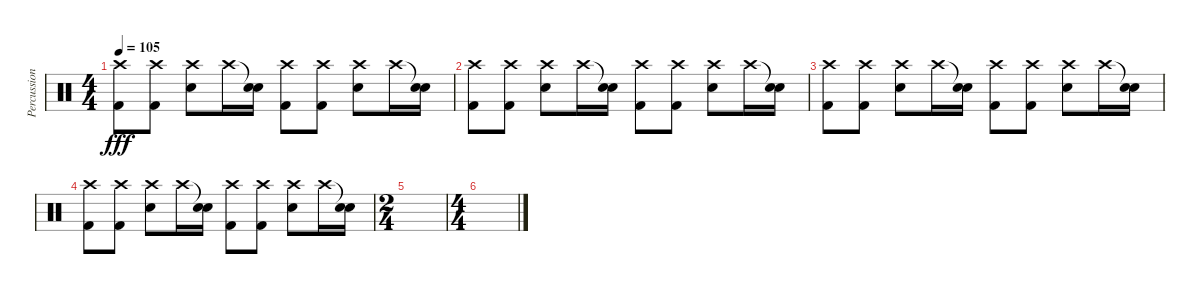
\track ("Percussion" "Percussion") {instrument percussion}
\staff {score}
\articulation defaults
\ts (4 4)
\tempo 105
\clef neutral
\ks c
("Crash high (hit)" "Kick (hit) 2").8{dy fff} ("Crash high (hit)" "Kick (hit) 2").8 ("Crash high (hit)" "Electric Snare (hit)").8 "Crash high (hit)".16 ("Snare (hit)"{t} "Electric Snare (hit)").16 ("Crash high (hit)" "Kick (hit) 2").8 ("Crash high (hit)" "Kick (hit) 2").8 ("Crash high (hit)" "Electric Snare (hit)").8 "Crash high (hit)".16 ("Snare (hit)"{t} "Electric Snare (hit)").16 |
("Crash high (hit)" "Kick (hit) 2").8 ("Crash high (hit)" "Kick (hit) 2").8 ("Crash high (hit)" "Electric Snare (hit)").8 "Crash high (hit)".16 ("Snare (hit)"{t} "Electric Snare (hit)").16 ("Crash high (hit)" "Kick (hit) 2").8 ("Crash high (hit)" "Kick (hit) 2").8 ("Crash high (hit)" "Electric Snare (hit)").8 "Crash high (hit)".16 ("Snare (hit)"{t} "Electric Snare (hit)").16 |
("Crash high (hit)" "Kick (hit) 2").8 ("Crash high (hit)" "Kick (hit) 2").8 ("Crash high (hit)" "Electric Snare (hit)").8 "Crash high (hit)".16 ("Snare (hit)"{t} "Electric Snare (hit)").16 ("Crash high (hit)" "Kick (hit) 2").8 ("Crash high (hit)" "Kick (hit) 2").8 ("Crash high (hit)" "Electric Snare (hit)").8 "Crash high (hit)".16 ("Snare (hit)"{t} "Electric Snare (hit)").16 |
("Crash high (hit)" "Kick (hit) 2").8 ("Crash high (hit)" "Kick (hit) 2").8 ("Crash high (hit)" "Electric Snare (hit)").8 "Crash high (hit)".16 ("Snare (hit)"{t} "Electric Snare (hit)").16 ("Crash high (hit)" "Kick (hit) 2").8 ("Crash high (hit)" "Kick (hit) 2").8 ("Crash high (hit)" "Electric Snare (hit)").8 "Crash high (hit)".16 ("Snare (hit)"{t} "Electric Snare (hit)").16 |
\ts (2 4)
|
\ts (4 4)
